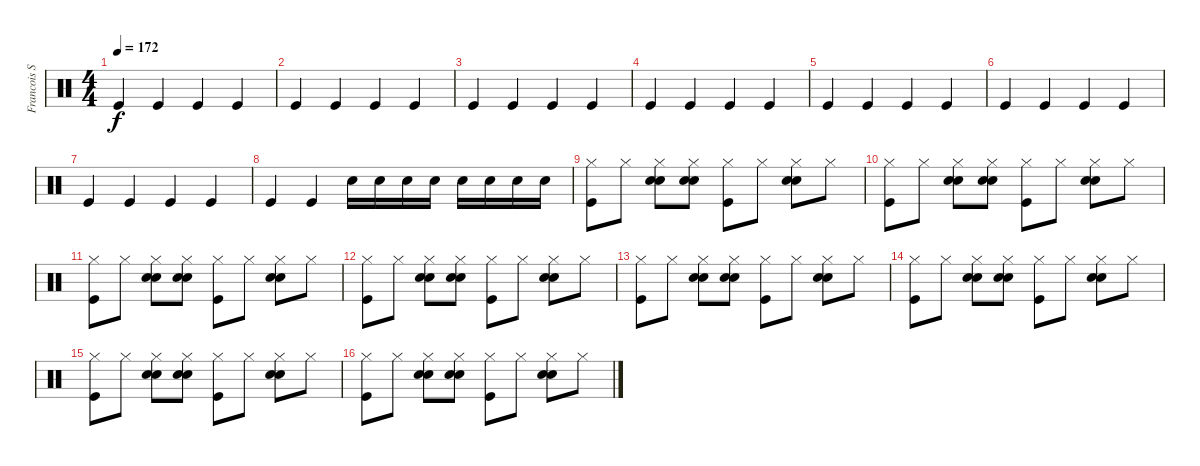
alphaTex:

\track ("Francois Soulier" "Francois S") {instrument percussion}
\staff {score}
\articulation defaults
\ts (4 4)
\tempo 172
\clef neutral
\ks c "Kick (hit)".4{dy f} "Kick (hit)".4 "Kick (hit)".4 "Kick (hit)".4
|
"Kick (hit)".4 "Kick (hit)".4 "Kick (hit)".4 "Kick (hit)".4 |
"Kick (hit)".4 "Kick (hit)".4 "Kick (hit)".4 "Kick (hit)".4 |
"Kick (hit)".4 "Kick (hit)".4 "Kick (hit)".4 "Kick (hit)".4 |
"Kick (hit)".4 "Kick (hit)".4 "Kick (hit)".4 "Kick (hit)".4 |
"Kick (hit)".4 "Kick (hit)".4 "Kick (hit)".4 "Kick (hit)".4 |
"Kick (hit)".4 "Kick (hit)".4 "Kick (hit)".4 "Kick (hit)".4 |
"Kick (hit)".4 "Kick (hit)".4 "Snare (hit) 2".16 "Snare (hit) 2".16 "Snare (hit) 2".16 "Snare (hit) 2".16 "Snare (hit) 2".16 "Snare (hit) 2".16 "Snare (hit) 2".16 "Snare (hit) 2".16 |
("Hi-Hat (closed)" "Kick (hit)").8 "Hi-Hat (closed)".8 ("Electric Snare (hit)" "Hi-Hat (closed)" "Snare (hit) 2").8 ("Electric Snare (hit)" "Hi-Hat (closed)" "Snare (hit) 2").8 ("Hi-Hat (closed)" "Kick (hit)").8 "Hi-Hat (closed)".8 ("Electric Snare (hit)" "Hi-Hat (closed)" "Snare (hit) 2").8 "Hi-Hat (closed)".8 |
("Hi-Hat (closed)" "Kick (hit)").8 "Hi-Hat (closed)".8 ("Electric Snare (hit)" "Hi-Hat (closed)" "Snare (hit) 2").8 ("Electric Snare (hit)" "Hi-Hat (closed)" "Snare (hit) 2").8 ("Hi-Hat (closed)" "Kick (hit)").8 "Hi-Hat (closed)".8 ("Electric Snare (hit)" "Hi-Hat (closed)" "Snare (hit) 2").8 "Hi-Hat (closed)".8 |
("Hi-Hat (closed)" "Kick (hit)").8 "Hi-Hat (closed)".8 ("Electric Snare (hit)" "Hi-Hat (closed)" "Snare (hit) 2").8 ("Electric Snare (hit)" "Hi-Hat (closed)" "Snare (hit) 2").8 ("Hi-Hat (closed)" "Kick (hit)").8 "Hi-Hat (closed)".8 ("Electric Snare (hit)" "Hi-Hat (closed)" "Snare (hit) 2").8 "Hi-Hat (closed)".8 |
("Hi-Hat (closed)" "Kick (hit)").8 "Hi-Hat (closed)".8 ("Electric Snare (hit)" "Hi-Hat (closed)" "Snare (hit) 2").8 ("Electric Snare (hit)" "Hi-Hat (closed)" "Snare (hit) 2").8 ("Hi-Hat (closed)" "Kick (hit)").8 "Hi-Hat (closed)".8 ("Electric Snare (hit)" "Hi-Hat (closed)" "Snare (hit) 2").8 "Hi-Hat (closed)".8 |
("Hi-Hat (closed)" "Kick (hit)").8 "Hi-Hat (closed)".8 ("Electric Snare (hit)" "Hi-Hat (closed)" "Snare (hit) 2").8 ("Electric Snare (hit)" "Hi-Hat (closed)" "Snare (hit) 2").8 ("Hi-Hat (closed)" "Kick (hit)").8 "Hi-Hat (closed)".8 ("Electric Snare (hit)" "Hi-Hat (closed)" "Snare (hit) 2").8 "Hi-Hat (closed)".8 |
("Hi-Hat (closed)" "Kick (hit)").8 "Hi-Hat (closed)".8 ("Electric Snare (hit)" "Hi-Hat (closed)" "Snare (hit) 2").8 ("Electric Snare (hit)" "Hi-Hat (closed)" "Snare (hit) 2").8 ("Hi-Hat (closed)" "Kick (hit)").8 "Hi-Hat (closed)".8 ("Electric Snare (hit)" "Hi-Hat (closed)" "Snare (hit) 2").8 "Hi-Hat (closed)".8 |
("Hi-Hat (closed)" "Kick (hit)").8 "Hi-Hat (closed)".8 ("Electric Snare (hit)" "Hi-Hat (closed)" "Snare (hit) 2").8 ("Electric Snare (hit)" "Hi-Hat (closed)" "Snare (hit) 2").8 ("Hi-Hat (closed)" "Kick (hit)").8 "Hi-Hat (closed)".8 ("Electric Snare (hit)" "Hi-Hat (closed)" "Snare (hit) 2").8 "Hi-Hat (closed)".8 |
("Hi-Hat (closed)" "Kick (hit)").8 "Hi-Hat (closed)".8 ("Electric Snare (hit)" "Hi-Hat (closed)" "Snare (hit) 2").8 ("Electric Snare (hit)" "Hi-Hat (closed)" "Snare (hit) 2").8 ("Hi-Hat (closed)" "Kick (hit)").8 "Hi-Hat (closed)".8 ("Electric Snare (hit)" "Hi-Hat (closed)" "Snare (hit) 2").8 "Hi-Hat (closed)".8
